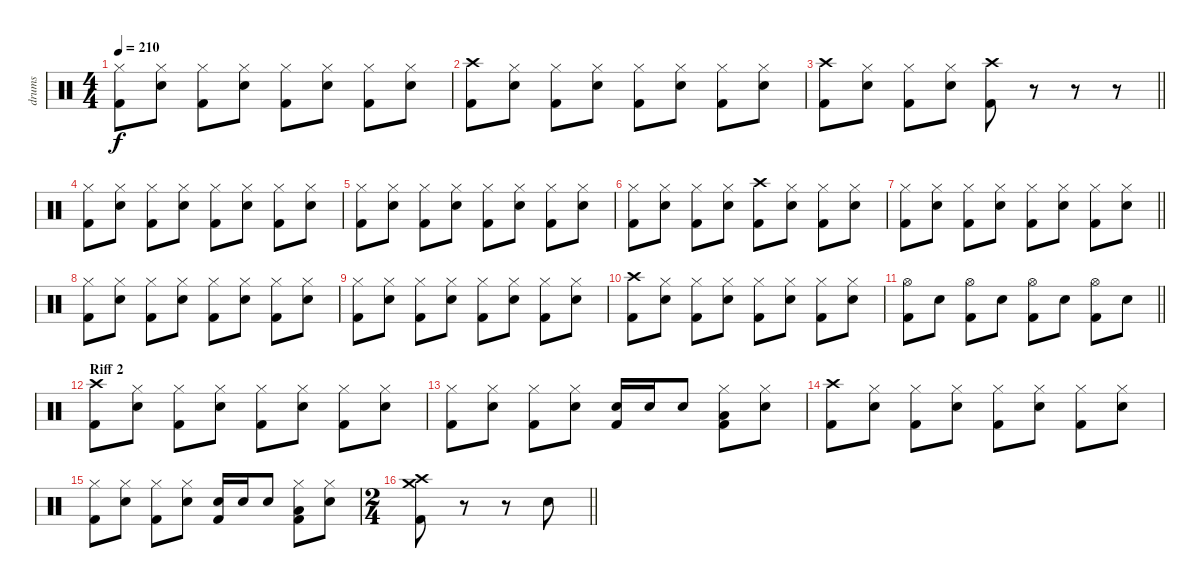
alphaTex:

\track ("drums" "drums") {instrument percussion}
\staff {score}
\articulation defaults
\ts (4 4)
\tempo 210
\clef neutral
\ks c
("Hi-Hat (closed)" "Kick (hit) 2").8{dy f} ("Hi-Hat (closed)" "Electric Snare (hit)").8 ("Hi-Hat (closed)" "Kick (hit) 2").8 ("Hi-Hat (closed)" "Electric Snare (hit)").8 ("Hi-Hat (closed)" "Kick (hit) 2").8 ("Hi-Hat (closed)" "Electric Snare (hit)").8 ("Hi-Hat (closed)" "Kick (hit) 2").8 ("Hi-Hat (closed)" "Electric Snare (hit)").8 |
("Crash high (hit)" "Kick (hit) 2").8 ("Hi-Hat (closed)" "Electric Snare (hit)").8 ("Hi-Hat (closed)" "Kick (hit) 2").8 ("Hi-Hat (closed)" "Electric Snare (hit)").8 ("Hi-Hat (closed)" "Kick (hit) 2").8 ("Hi-Hat (closed)" "Electric Snare (hit)").8 ("Hi-Hat (closed)" "Kick (hit) 2").8 ("Hi-Hat (closed)" "Electric Snare (hit)").8 |
\barLineRight lightlight
("Crash high (hit)" "Kick (hit) 2").8 ("Hi-Hat (closed)" "Electric Snare (hit)").8 ("Hi-Hat (closed)" "Kick (hit) 2").8 ("Hi-Hat (closed)" "Electric Snare (hit)").8 ("Crash high (hit)" "Kick (hit) 2").8 r.8 r.8 r.8 |
\section ("" "")
("Hi-Hat (closed)" "Kick (hit) 2").8 ("Hi-Hat (closed)" "Electric Snare (hit)").8 ("Hi-Hat (closed)" "Kick (hit) 2").8 ("Hi-Hat (closed)" "Electric Snare (hit)").8 ("Hi-Hat (closed)" "Kick (hit) 2").8 ("Hi-Hat (closed)" "Electric Snare (hit)").8 ("Hi-Hat (closed)" "Kick (hit) 2").8 ("Hi-Hat (closed)" "Electric Snare (hit)").8 |
("Hi-Hat (closed)" "Kick (hit) 2").8 ("Hi-Hat (closed)" "Electric Snare (hit)").8 ("Hi-Hat (closed)" "Kick (hit) 2").8 ("Hi-Hat (closed)" "Electric Snare (hit)").8 ("Hi-Hat (closed)" "Kick (hit) 2").8 ("Hi-Hat (closed)" "Electric Snare (hit)").8 ("Hi-Hat (closed)" "Kick (hit) 2").8 ("Hi-Hat (closed)" "Electric Snare (hit)").8 |
("Hi-Hat (closed)" "Kick (hit) 2").8 ("Hi-Hat (closed)" "Electric Snare (hit)").8 ("Hi-Hat (closed)" "Kick (hit) 2").8 ("Hi-Hat (closed)" "Electric Snare (hit)").8 ("Crash high (hit)" "Kick (hit) 2").8 ("Hi-Hat (closed)" "Electric Snare (hit)").8 ("Hi-Hat (closed)" "Kick (hit) 2").8 ("Hi-Hat (closed)" "Electric Snare (hit)").8 |
\barLineRight lightlight
("Hi-Hat (closed)" "Kick (hit) 2").8 ("Hi-Hat (closed)" "Electric Snare (hit)").8 ("Hi-Hat (closed)" "Kick (hit) 2").8 ("Hi-Hat (closed)" "Electric Snare (hit)").8 ("Hi-Hat (closed)" "Kick (hit) 2").8 ("Hi-Hat (closed)" "Electric Snare (hit)").8 ("Hi-Hat (closed)" "Kick (hit) 2").8 ("Hi-Hat (closed)" "Electric Snare (hit)").8 |
("Hi-Hat (closed)" "Kick (hit) 2").8 ("Hi-Hat (closed)" "Electric Snare (hit)").8 ("Hi-Hat (closed)" "Kick (hit) 2").8 ("Hi-Hat (closed)" "Electric Snare (hit)").8 ("Hi-Hat (closed)" "Kick (hit) 2").8 ("Hi-Hat (closed)" "Electric Snare (hit)").8 ("Hi-Hat (closed)" "Kick (hit) 2").8 ("Hi-Hat (closed)" "Electric Snare (hit)").8 |
("Hi-Hat (closed)" "Kick (hit) 2").8 ("Hi-Hat (closed)" "Electric Snare (hit)").8 ("Hi-Hat (closed)" "Kick (hit) 2").8 ("Hi-Hat (closed)" "Electric Snare (hit)").8 ("Hi-Hat (closed)" "Kick (hit) 2").8 ("Hi-Hat (closed)" "Electric Snare (hit)").8 ("Hi-Hat (closed)" "Kick (hit) 2").8 ("Hi-Hat (closed)" "Electric Snare (hit)").8 |
("Crash high (hit)" "Kick (hit) 2").8 ("Hi-Hat (closed)" "Electric Snare (hit)").8 ("Hi-Hat (closed)" "Kick (hit) 2").8 ("Hi-Hat (closed)" "Electric Snare (hit)").8 ("Hi-Hat (closed)" "Kick (hit) 2").8 ("Hi-Hat (closed)" "Electric Snare (hit)").8 ("Hi-Hat (closed)" "Kick (hit) 2").8 ("Hi-Hat (closed)" "Electric Snare (hit)").8 |
\barLineRight lightlight
("Hi-Hat (open)" "Kick (hit) 2").8 "Electric Snare (hit)".8 ("Hi-Hat (open)" "Kick (hit) 2").8 "Electric Snare (hit)".8 ("Hi-Hat (open)" "Kick (hit) 2").8 "Electric Snare (hit)".8 ("Hi-Hat (open)" "Kick (hit) 2").8 "Electric Snare (hit)".8 |
\section ("" "Riff 2")
("Crash high (hit)" "Kick (hit) 2").8 ("Hi-Hat (closed)" "Electric Snare (hit)").8 ("Hi-Hat (closed)" "Kick (hit) 2").8 ("Hi-Hat (closed)" "Electric Snare (hit)").8 ("Hi-Hat (closed)" "Kick (hit) 2").8 ("Hi-Hat (closed)" "Electric Snare (hit)").8 ("Hi-Hat (closed)" "Kick (hit) 2").8 ("Hi-Hat (closed)" "Electric Snare (hit)").8 |
("Hi-Hat (closed)" "Kick (hit) 2").8 ("Hi-Hat (closed)" "Electric Snare (hit)").8 ("Hi-Hat (closed)" "Kick (hit) 2").8 ("Hi-Hat (closed)" "Electric Snare (hit)").8 ("Electric Snare (hit)" "Kick (hit) 2").16 "Electric Snare (hit)".16 "Electric Snare (hit)".8 ("Hi-Hat (closed)" "Low Floor Tom (hit)" "Kick (hit) 2").8 ("Hi-Hat (closed)" "Electric Snare (hit)").8 |
("Crash high (hit)" "Kick (hit) 2").8 ("Hi-Hat (closed)" "Electric Snare (hit)").8 ("Hi-Hat (closed)" "Kick (hit) 2").8 ("Hi-Hat (closed)" "Electric Snare (hit)").8 ("Hi-Hat (closed)" "Kick (hit) 2").8 ("Hi-Hat (closed)" "Electric Snare (hit)").8 ("Hi-Hat (closed)" "Kick (hit) 2").8 ("Hi-Hat (closed)" "Electric Snare (hit)").8 |
("Hi-Hat (closed)" "Kick (hit) 2").8 ("Hi-Hat (closed)" "Electric Snare (hit)").8 ("Hi-Hat (closed)" "Kick (hit) 2").8 ("Hi-Hat (closed)" "Electric Snare (hit)").8 ("Electric Snare (hit)" "Kick (hit) 2").16 "Electric Snare (hit)".16 "Electric Snare (hit)".8 ("Hi-Hat (closed)" "Low Floor Tom (hit)" "Kick (hit) 2").8 ("Hi-Hat (closed)" "Electric Snare (hit)").8 |
\ts (2 4)
\barLineRight lightlight
("Crash high (hit)" "Crash medium (hit)" "Kick (hit) 2").8 r.8 r.8 "Snare (hit) 2".8
